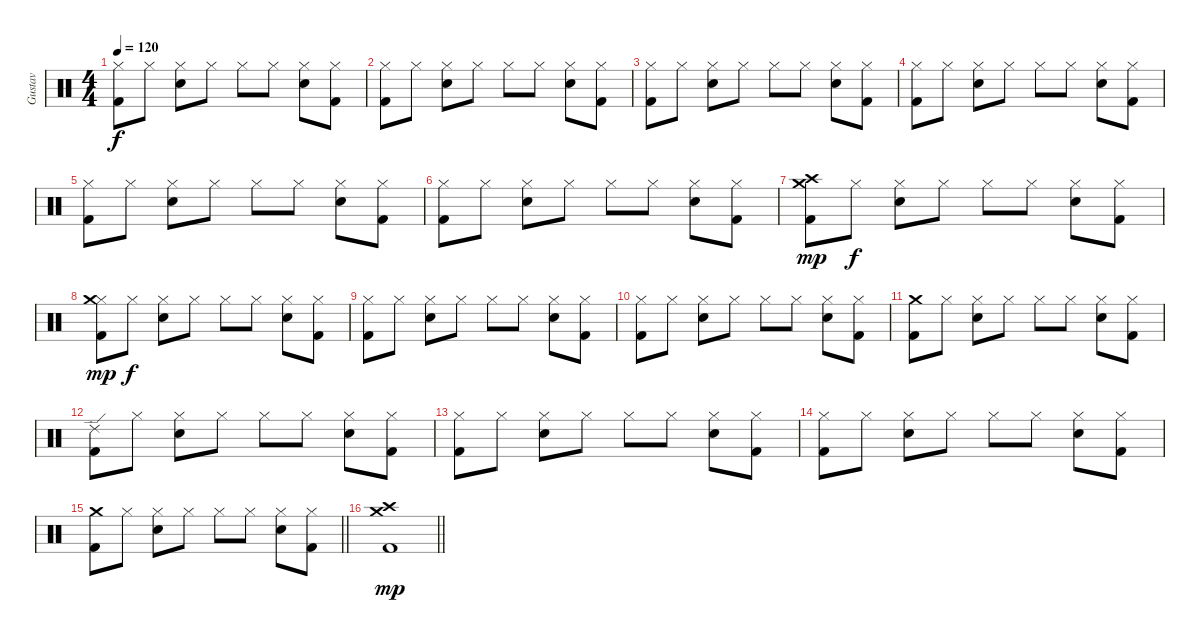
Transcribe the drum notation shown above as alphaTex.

\track ("Gustav" "Gustav") {instrument percussion}
\staff {score}
\articulation defaults
\ts (4 4)
\tempo 120
\clef neutral
\ks c
("Kick (hit) 2" "Hi-Hat (closed)").8{dy f} "Hi-Hat (closed)".8 ("Hi-Hat (closed)" "Snare (hit) 2").8 "Hi-Hat (closed)".8 "Hi-Hat (closed)".8 "Hi-Hat (closed)".8 ("Snare (hit) 2" "Hi-Hat (closed)").8 ("Hi-Hat (closed)" "Kick (hit) 2").8 |
("Kick (hit) 2" "Hi-Hat (closed)").8 "Hi-Hat (closed)".8 ("Hi-Hat (closed)" "Snare (hit) 2").8 "Hi-Hat (closed)".8 "Hi-Hat (closed)".8 "Hi-Hat (closed)".8 ("Snare (hit) 2" "Hi-Hat (closed)").8 ("Hi-Hat (closed)" "Kick (hit) 2").8 |
("Kick (hit) 2" "Hi-Hat (closed)").8 "Hi-Hat (closed)".8 ("Hi-Hat (closed)" "Snare (hit) 2").8 "Hi-Hat (closed)".8 "Hi-Hat (closed)".8 "Hi-Hat (closed)".8 ("Snare (hit) 2" "Hi-Hat (closed)").8 ("Hi-Hat (closed)" "Kick (hit) 2").8 |
("Kick (hit) 2" "Hi-Hat (closed)").8 "Hi-Hat (closed)".8 ("Hi-Hat (closed)" "Snare (hit) 2").8 "Hi-Hat (closed)".8 "Hi-Hat (closed)".8 "Hi-Hat (closed)".8 ("Snare (hit) 2" "Hi-Hat (closed)").8 ("Hi-Hat (closed)" "Kick (hit) 2").8 |
("Kick (hit) 2" "Hi-Hat (closed)").8 "Hi-Hat (closed)".8 ("Hi-Hat (closed)" "Snare (hit) 2").8 "Hi-Hat (closed)".8 "Hi-Hat (closed)".8 "Hi-Hat (closed)".8 ("Snare (hit) 2" "Hi-Hat (closed)").8 ("Hi-Hat (closed)" "Kick (hit) 2").8 |
("Kick (hit) 2" "Hi-Hat (closed)").8 "Hi-Hat (closed)".8 ("Hi-Hat (closed)" "Snare (hit) 2").8 "Hi-Hat (closed)".8 "Hi-Hat (closed)".8 "Hi-Hat (closed)".8 ("Snare (hit) 2" "Hi-Hat (closed)").8 ("Hi-Hat (closed)" "Kick (hit) 2").8 |
("Kick (hit) 2" "Crash high (hit)" "Crash medium (hit)").8{dy mp} "Hi-Hat (closed)".8{dy f} ("Hi-Hat (closed)" "Snare (hit) 2").8 "Hi-Hat (closed)".8 "Hi-Hat (closed)".8 "Hi-Hat (closed)".8 ("Snare (hit) 2" "Hi-Hat (closed)").8 ("Hi-Hat (closed)" "Kick (hit) 2").8 |
("Kick (hit) 2" "Hi-Hat (closed)" "Crash medium (hit)").8{dy mp} "Hi-Hat (closed)".8{dy f} ("Hi-Hat (closed)" "Snare (hit) 2").8 "Hi-Hat (closed)".8 "Hi-Hat (closed)".8 "Hi-Hat (closed)".8 ("Snare (hit) 2" "Hi-Hat (closed)").8 ("Hi-Hat (closed)" "Kick (hit) 2").8 |
("Kick (hit) 2" "Hi-Hat (closed)").8 "Hi-Hat (closed)".8 ("Hi-Hat (closed)" "Snare (hit) 2").8 "Hi-Hat (closed)".8 "Hi-Hat (closed)".8 "Hi-Hat (closed)".8 ("Snare (hit) 2" "Hi-Hat (closed)").8 ("Hi-Hat (closed)" "Kick (hit) 2").8 |
("Kick (hit) 2" "Hi-Hat (closed)").8 "Hi-Hat (closed)".8 ("Hi-Hat (closed)" "Snare (hit) 2").8 "Hi-Hat (closed)".8 "Hi-Hat (closed)".8 "Hi-Hat (closed)".8 ("Snare (hit) 2" "Hi-Hat (closed)").8 ("Hi-Hat (closed)" "Kick (hit) 2").8 |
("Kick (hit) 2" "Crash medium (hit)").8 "Hi-Hat (closed)".8 ("Hi-Hat (closed)" "Snare (hit) 2").8 "Hi-Hat (closed)".8 "Hi-Hat (closed)".8 "Hi-Hat (closed)".8 ("Snare (hit) 2" "Hi-Hat (closed)").8 ("Hi-Hat (closed)" "Kick (hit) 2").8 |
("Kick (hit) 2" "Ride (edge) 2").8 "Hi-Hat (closed)".8 ("Hi-Hat (closed)" "Snare (hit) 2").8 "Hi-Hat (closed)".8 "Hi-Hat (closed)".8 "Hi-Hat (closed)".8 ("Snare (hit) 2" "Hi-Hat (closed)").8 ("Hi-Hat (closed)" "Kick (hit) 2").8 |
("Kick (hit) 2" "Hi-Hat (closed)").8 "Hi-Hat (closed)".8 ("Hi-Hat (closed)" "Snare (hit) 2").8 "Hi-Hat (closed)".8 "Hi-Hat (closed)".8 "Hi-Hat (closed)".8 ("Snare (hit) 2" "Hi-Hat (closed)").8 ("Hi-Hat (closed)" "Kick (hit) 2").8 |
("Kick (hit) 2" "Hi-Hat (closed)").8 "Hi-Hat (closed)".8 ("Hi-Hat (closed)" "Snare (hit) 2").8 "Hi-Hat (closed)".8 "Hi-Hat (closed)".8 "Hi-Hat (closed)".8 ("Snare (hit) 2" "Hi-Hat (closed)").8 ("Hi-Hat (closed)" "Kick (hit) 2").8 |
\barLineRight lightlight
("Kick (hit) 2" "Crash medium (hit)").8 "Hi-Hat (closed)".8 ("Hi-Hat (closed)" "Snare (hit) 2").8 "Hi-Hat (closed)".8 "Hi-Hat (closed)".8 "Hi-Hat (closed)".8 ("Snare (hit) 2" "Hi-Hat (closed)").8 ("Hi-Hat (closed)" "Kick (hit) 2").8 |
\section ("" "")
\barLineRight lightlight
("Kick (hit) 2" "Crash high (hit)" "Crash medium (hit)").1{dy mp}
